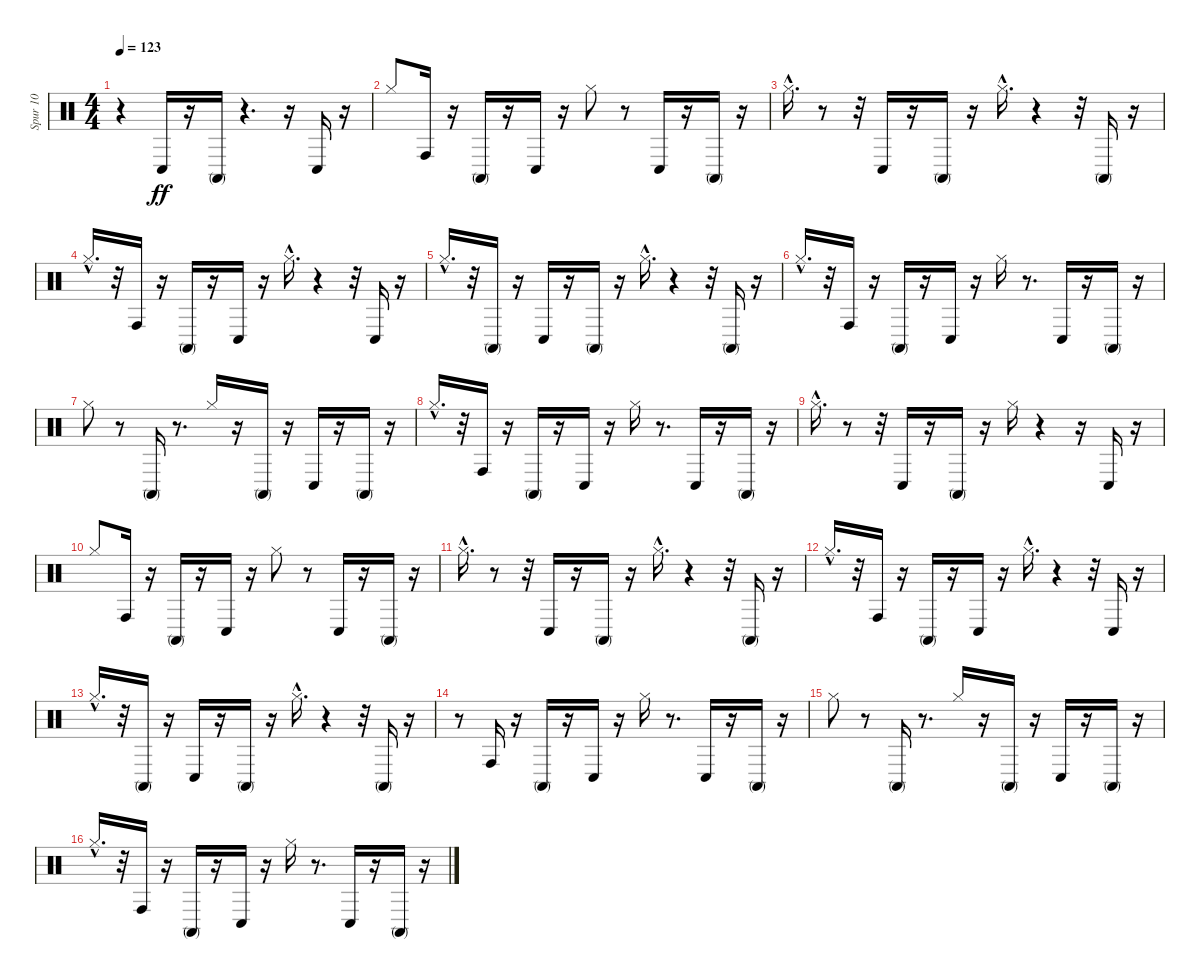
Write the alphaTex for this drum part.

\track ("Spur 10" "Spur 10") {instrument percussion}
\staff {score}
\articulation defaults
\ts (4 4)
\tempo 123
\clef neutral
\ks c
r.4{dy ff} "Conga low (hit)".16 r.16 "Conga high (mute)".16 r.4{d} r.16 "Conga low (hit)".16 r.16 |
"Hi-Hat (closed)".8 "Conga high (hit)".16 r.16 "Conga high (mute)".16 r.16 "Conga low (hit)".16 r.16 "Hi-Hat (closed)".8 r.8 "Conga low (hit)".16 r.16 "Conga high (mute)".16 r.16 |
"Hi-Hat (closed)"{hac}.16{d} r.8 r.32 "Conga low (hit)".16 r.16 "Conga high (mute)".16 r.16 "Hi-Hat (closed)"{hac}.16{d} r.4 r.32 "Conga high (mute)".16 r.16 |
"Hi-Hat (closed)"{hac}.16{d} r.32 "Conga high (hit)".16 r.16 "Conga high (mute)".16 r.16 "Conga low (hit)".16 r.16 "Hi-Hat (closed)"{hac}.16{d} r.4 r.32 "Conga low (hit)".16 r.16 |
"Hi-Hat (closed)"{hac}.16{d} r.32 "Conga high (mute)".16 r.16 "Conga low (hit)".16 r.16 "Conga high (mute)".16 r.16 "Hi-Hat (closed)"{hac}.16{d} r.4 r.32 "Conga high (mute)".16 r.16 |
"Hi-Hat (closed)"{hac}.16{d} r.32 "Conga high (hit)".16 r.16 "Conga high (mute)".16 r.16 "Conga low (hit)".16 r.16 "Hi-Hat (closed)".16 r.8{d} "Conga low (hit)".16 r.16 "Conga high (mute)".16 r.16 |
"Hi-Hat (closed)".8 r.8 "Conga high (mute)".16 r.8{d} "Hi-Hat (closed)".16 r.16 "Conga high (mute)".16 r.16 "Conga low (hit)".16 r.16 "Conga high (mute)".16 r.16 |
"Hi-Hat (closed)"{hac}.16{d} r.32 "Conga high (hit)".16 r.16 "Conga high (mute)".16 r.16 "Conga low (hit)".16 r.16 "Hi-Hat (closed)".16 r.8{d} "Conga low (hit)".16 r.16 "Conga high (mute)".16 r.16 |
"Hi-Hat (closed)"{hac}.16{d} r.8 r.32 "Conga low (hit)".16 r.16 "Conga high (mute)".16 r.16 "Hi-Hat (closed)".16 r.4 r.16 "Conga low (hit)".16 r.16 |
"Hi-Hat (closed)".8 "Conga high (hit)".16 r.16 "Conga high (mute)".16 r.16 "Conga low (hit)".16 r.16 "Hi-Hat (closed)".8 r.8 "Conga low (hit)".16 r.16 "Conga high (mute)".16 r.16 |
"Hi-Hat (closed)"{hac}.16{d} r.8 r.32 "Conga low (hit)".16 r.16 "Conga high (mute)".16 r.16 "Hi-Hat (closed)"{hac}.16{d} r.4 r.32 "Conga high (mute)".16 r.16 |
"Hi-Hat (closed)"{hac}.16{d} r.32 "Conga high (hit)".16 r.16 "Conga high (mute)".16 r.16 "Conga low (hit)".16 r.16 "Hi-Hat (closed)"{hac}.16{d} r.4 r.32 "Conga low (hit)".16 r.16 |
"Hi-Hat (closed)"{hac}.16{d} r.32 "Conga high (mute)".16 r.16 "Conga low (hit)".16 r.16 "Conga high (mute)".16 r.16 "Hi-Hat (closed)"{hac}.16{d} r.4 r.32 "Conga high (mute)".16 r.16 |
r.8 "Conga high (hit)".16 r.16 "Conga high (mute)".16 r.16 "Conga low (hit)".16 r.16 "Hi-Hat (closed)".16 r.8{d} "Conga low (hit)".16 r.16 "Conga high (mute)".16 r.16 |
"Hi-Hat (closed)".8 r.8 "Conga high (mute)".16 r.8{d} "Hi-Hat (closed)".16 r.16 "Conga high (mute)".16 r.16 "Conga low (hit)".16 r.16 "Conga high (mute)".16 r.16 |
"Hi-Hat (closed)"{hac}.16{d} r.32 "Conga high (hit)".16 r.16 "Conga high (mute)".16 r.16 "Conga low (hit)".16 r.16 "Hi-Hat (closed)".16 r.8{d} "Conga low (hit)".16 r.16 "Conga high (mute)".16 r.16
